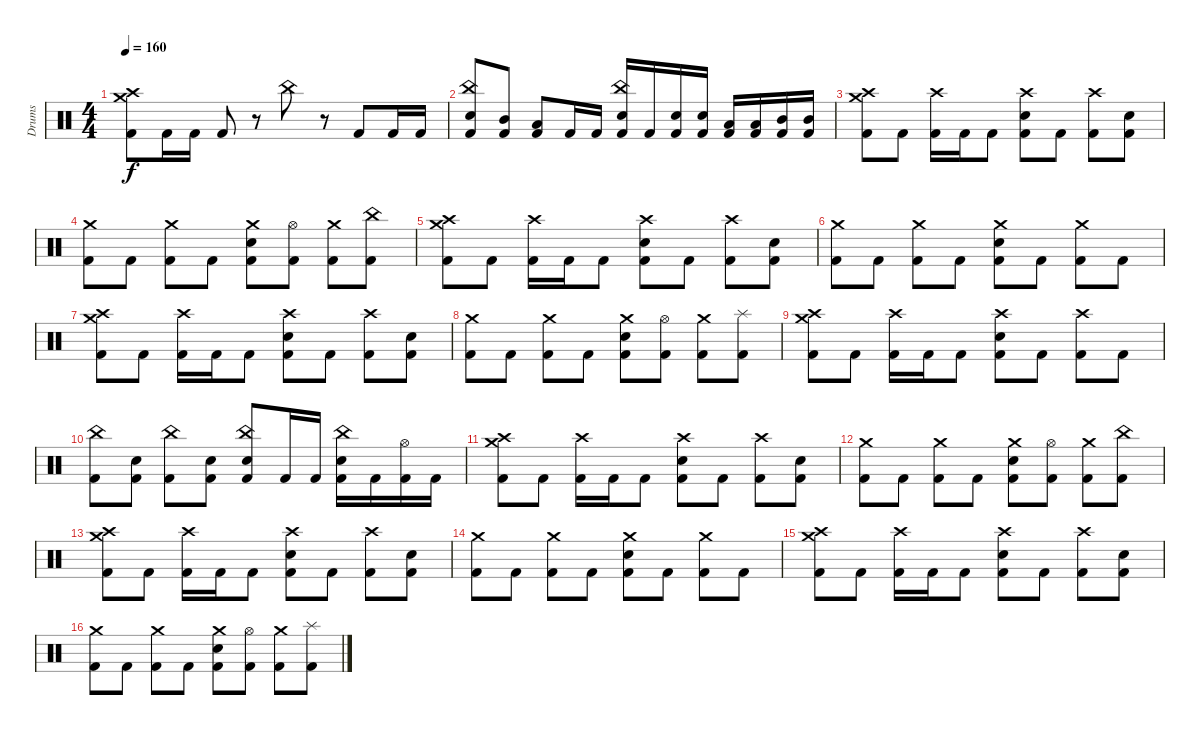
\track ("Drums" "Drums") {instrument percussion}
\staff {score}
\articulation defaults
\ts (4 4)
\tempo 160
\clef neutral
\ks c
("Crash high (hit)" "Crash medium (hit)" "Kick (hit) 2").8{dy f} "Kick (hit) 2".16 "Kick (hit) 2".16 "Kick (hit) 2".8 r.8 "China (hit)".8 r.8 "Kick (hit) 2".8 "Kick (hit) 2".16 "Kick (hit) 2".16 |
("China (hit)" "Electric Snare (hit)" "Kick (hit) 2").8 ("Mid Tom (hit)" "Kick (hit) 2").8 ("Low Tom (hit)" "Kick (hit) 2").8 "Kick (hit) 2".16 "Kick (hit) 2".16 ("China (hit)" "Electric Snare (hit)" "Kick (hit) 2").16 "Kick (hit) 2".16 ("Electric Snare (hit)" "Kick (hit) 2").16 ("Electric Snare (hit)" "Kick (hit) 2").16 ("Low Tom (hit)" "Kick (hit) 2").16 ("Low Tom (hit)" "Kick (hit) 2").16 ("Mid Tom (hit)" "Kick (hit) 2").16 ("Mid Tom (hit)" "Kick (hit) 2").16 |
("Crash high (hit)" "Crash medium (hit)" "Kick (hit) 2").8 "Kick (hit) 2".8 ("Crash high (hit)" "Kick (hit) 2").16 "Kick (hit) 2".16 "Kick (hit) 2".8 ("Crash high (hit)" "Electric Snare (hit)" "Kick (hit) 2").8 "Kick (hit) 2".8 ("Crash high (hit)" "Kick (hit) 2").8 ("Electric Snare (hit)" "Kick (hit) 2").8 |
("Crash medium (hit)" "Kick (hit) 2").8 "Kick (hit) 2".8 ("Crash medium (hit)" "Kick (hit) 2").8 "Kick (hit) 2".8 ("Crash medium (hit)" "Electric Snare (hit)" "Kick (hit) 2").8 ("Hi-Hat (open)" "Kick (hit) 2").8 ("Crash medium (hit)" "Kick (hit) 2").8 ("China (hit)" "Kick (hit) 2").8 |
("Crash high (hit)" "Crash medium (hit)" "Kick (hit) 2").8 "Kick (hit) 2".8 ("Crash high (hit)" "Kick (hit) 2").16 "Kick (hit) 2".16 "Kick (hit) 2".8 ("Crash high (hit)" "Electric Snare (hit)" "Kick (hit) 2").8 "Kick (hit) 2".8 ("Crash high (hit)" "Kick (hit) 2").8 ("Electric Snare (hit)" "Kick (hit) 2").8 |
("Crash medium (hit)" "Kick (hit) 2").8 "Kick (hit) 2".8 ("Crash medium (hit)" "Kick (hit) 2").8 "Kick (hit) 2".8 ("Crash medium (hit)" "Electric Snare (hit)" "Kick (hit) 2").8 "Kick (hit) 2".8 ("Crash medium (hit)" "Kick (hit) 2").8 "Kick (hit) 2".8 |
("Crash high (hit)" "Crash medium (hit)" "Kick (hit) 2").8 "Kick (hit) 2".8 ("Crash high (hit)" "Kick (hit) 2").16 "Kick (hit) 2".16 "Kick (hit) 2".8 ("Crash high (hit)" "Electric Snare (hit)" "Kick (hit) 2").8 "Kick (hit) 2".8 ("Crash high (hit)" "Kick (hit) 2").8 ("Electric Snare (hit)" "Kick (hit) 2").8 |
("Crash medium (hit)" "Kick (hit) 2").8 "Kick (hit) 2".8 ("Crash medium (hit)" "Kick (hit) 2").8 "Kick (hit) 2".8 ("Crash medium (hit)" "Electric Snare (hit)" "Kick (hit) 2").8 ("Hi-Hat (open)" "Kick (hit) 2").8 ("Crash medium (hit)" "Kick (hit) 2").8 ("Splash (hit)" "Kick (hit) 2").8 |
("Crash high (hit)" "Crash medium (hit)" "Kick (hit) 2").8 "Kick (hit) 2".8 ("Crash high (hit)" "Kick (hit) 2").16 "Kick (hit) 2".16 "Kick (hit) 2".8 ("Crash high (hit)" "Electric Snare (hit)" "Kick (hit) 2").8 "Kick (hit) 2".8 ("Crash high (hit)" "Kick (hit) 2").8 "Kick (hit) 2".8 |
("China (hit)" "Kick (hit) 2").8 ("Electric Snare (hit)" "Kick (hit) 2").8 ("China (hit)" "Kick (hit) 2").8 ("Electric Snare (hit)" "Kick (hit) 2").8 ("China (hit)" "Electric Snare (hit)" "Kick (hit) 2").8 "Kick (hit) 2".16 "Kick (hit) 2".16 ("China (hit)" "Electric Snare (hit)" "Kick (hit) 2").16 "Kick (hit) 2".16 ("Hi-Hat (open)" "Kick (hit) 2").16 "Kick (hit) 2".16 |
("Crash high (hit)" "Crash medium (hit)" "Kick (hit) 2").8 "Kick (hit) 2".8 ("Crash high (hit)" "Kick (hit) 2").16 "Kick (hit) 2".16 "Kick (hit) 2".8 ("Crash high (hit)" "Electric Snare (hit)" "Kick (hit) 2").8 "Kick (hit) 2".8 ("Crash high (hit)" "Kick (hit) 2").8 ("Electric Snare (hit)" "Kick (hit) 2").8 |
("Crash medium (hit)" "Kick (hit) 2").8 "Kick (hit) 2".8 ("Crash medium (hit)" "Kick (hit) 2").8 "Kick (hit) 2".8 ("Crash medium (hit)" "Electric Snare (hit)" "Kick (hit) 2").8 ("Hi-Hat (open)" "Kick (hit) 2").8 ("Crash medium (hit)" "Kick (hit) 2").8 ("China (hit)" "Kick (hit) 2").8 |
("Crash high (hit)" "Crash medium (hit)" "Kick (hit) 2").8 "Kick (hit) 2".8 ("Crash high (hit)" "Kick (hit) 2").16 "Kick (hit) 2".16 "Kick (hit) 2".8 ("Crash high (hit)" "Electric Snare (hit)" "Kick (hit) 2").8 "Kick (hit) 2".8 ("Crash high (hit)" "Kick (hit) 2").8 ("Electric Snare (hit)" "Kick (hit) 2").8 |
("Crash medium (hit)" "Kick (hit) 2").8 "Kick (hit) 2".8 ("Crash medium (hit)" "Kick (hit) 2").8 "Kick (hit) 2".8 ("Crash medium (hit)" "Electric Snare (hit)" "Kick (hit) 2").8 "Kick (hit) 2".8 ("Crash medium (hit)" "Kick (hit) 2").8 "Kick (hit) 2".8 |
("Crash high (hit)" "Crash medium (hit)" "Kick (hit) 2").8 "Kick (hit) 2".8 ("Crash high (hit)" "Kick (hit) 2").16 "Kick (hit) 2".16 "Kick (hit) 2".8 ("Crash high (hit)" "Electric Snare (hit)" "Kick (hit) 2").8 "Kick (hit) 2".8 ("Crash high (hit)" "Kick (hit) 2").8 ("Electric Snare (hit)" "Kick (hit) 2").8 |
("Crash medium (hit)" "Kick (hit) 2").8 "Kick (hit) 2".8 ("Crash medium (hit)" "Kick (hit) 2").8 "Kick (hit) 2".8 ("Crash medium (hit)" "Electric Snare (hit)" "Kick (hit) 2").8 ("Hi-Hat (open)" "Kick (hit) 2").8 ("Crash medium (hit)" "Kick (hit) 2").8 ("Splash (hit)" "Kick (hit) 2").8
